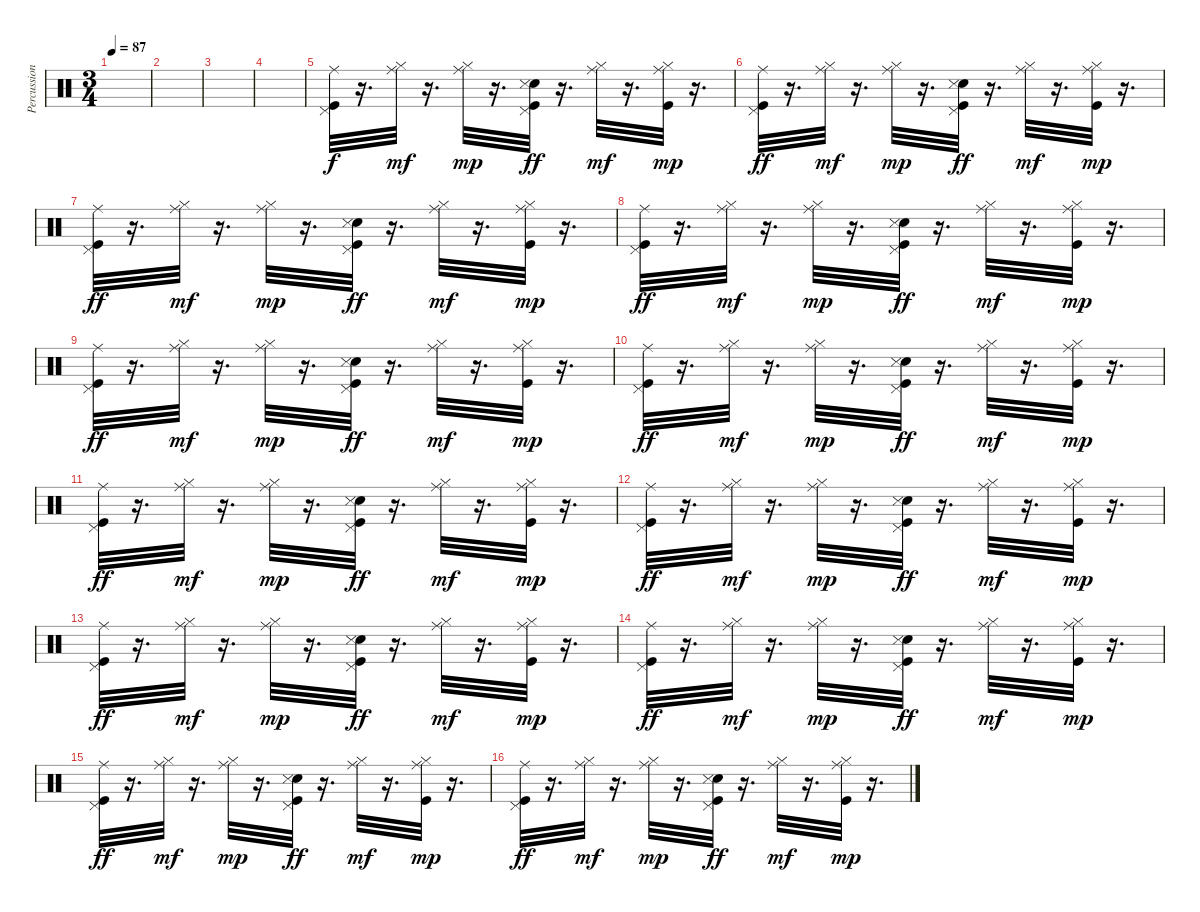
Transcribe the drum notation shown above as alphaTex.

\track ("Percussion" "Percussion") {instrument percussion}
\staff {score}
\articulation defaults
\ts (3 4)
\tempo 87
\clef neutral
\ks c
|
|
|
|
("Kick (hit)" "Ride (middle)" "Pedal Hi-Hat (hit)").32 r.16{d} ("Hi-Hat (closed)" "Ride (middle)").32{dy mf} r.16{d} ("Hi-Hat (closed)" "Ride (middle)").32{dy mp} r.16{d} ("Kick (hit)" "Pedal Hi-Hat (hit)" "Electric Snare (hit)" "Snare (side stick) 3").32{dy ff} r.16{d} ("Hi-Hat (closed)" "Ride (middle)").32{dy mf} r.16{d} ("Hi-Hat (closed)" "Ride (middle)" "Kick (hit)").32{dy mp} r.16{d} |
("Kick (hit)" "Ride (middle)" "Pedal Hi-Hat (hit)").32{dy ff} r.16{d} ("Hi-Hat (closed)" "Ride (middle)").32{dy mf} r.16{d} ("Hi-Hat (closed)" "Ride (middle)").32{dy mp} r.16{d} ("Kick (hit)" "Pedal Hi-Hat (hit)" "Electric Snare (hit)" "Snare (side stick) 3").32{dy ff} r.16{d} ("Hi-Hat (closed)" "Ride (middle)").32{dy mf} r.16{d} ("Hi-Hat (closed)" "Ride (middle)" "Kick (hit)").32{dy mp} r.16{d} |
("Kick (hit)" "Ride (middle)" "Pedal Hi-Hat (hit)").32{dy ff} r.16{d} ("Hi-Hat (closed)" "Ride (middle)").32{dy mf} r.16{d} ("Hi-Hat (closed)" "Ride (middle)").32{dy mp} r.16{d} ("Kick (hit)" "Pedal Hi-Hat (hit)" "Electric Snare (hit)" "Snare (side stick) 3").32{dy ff} r.16{d} ("Hi-Hat (closed)" "Ride (middle)").32{dy mf} r.16{d} ("Hi-Hat (closed)" "Ride (middle)" "Kick (hit)").32{dy mp} r.16{d} |
("Kick (hit)" "Ride (middle)" "Pedal Hi-Hat (hit)").32{dy ff} r.16{d} ("Hi-Hat (closed)" "Ride (middle)").32{dy mf} r.16{d} ("Hi-Hat (closed)" "Ride (middle)").32{dy mp} r.16{d} ("Kick (hit)" "Pedal Hi-Hat (hit)" "Electric Snare (hit)" "Snare (side stick) 3").32{dy ff} r.16{d} ("Hi-Hat (closed)" "Ride (middle)").32{dy mf} r.16{d} ("Hi-Hat (closed)" "Ride (middle)" "Kick (hit)").32{dy mp} r.16{d} |
("Kick (hit)" "Ride (middle)" "Pedal Hi-Hat (hit)").32{dy ff} r.16{d} ("Hi-Hat (closed)" "Ride (middle)").32{dy mf} r.16{d} ("Hi-Hat (closed)" "Ride (middle)").32{dy mp} r.16{d} ("Kick (hit)" "Pedal Hi-Hat (hit)" "Electric Snare (hit)" "Snare (side stick) 3").32{dy ff} r.16{d} ("Hi-Hat (closed)" "Ride (middle)").32{dy mf} r.16{d} ("Hi-Hat (closed)" "Ride (middle)" "Kick (hit)").32{dy mp} r.16{d} |
("Kick (hit)" "Ride (middle)" "Pedal Hi-Hat (hit)").32{dy ff} r.16{d} ("Hi-Hat (closed)" "Ride (middle)").32{dy mf} r.16{d} ("Hi-Hat (closed)" "Ride (middle)").32{dy mp} r.16{d} ("Kick (hit)" "Pedal Hi-Hat (hit)" "Electric Snare (hit)" "Snare (side stick) 3").32{dy ff} r.16{d} ("Hi-Hat (closed)" "Ride (middle)").32{dy mf} r.16{d} ("Hi-Hat (closed)" "Ride (middle)" "Kick (hit)").32{dy mp} r.16{d} |
("Kick (hit)" "Ride (middle)" "Pedal Hi-Hat (hit)").32{dy ff} r.16{d} ("Hi-Hat (closed)" "Ride (middle)").32{dy mf} r.16{d} ("Hi-Hat (closed)" "Ride (middle)").32{dy mp} r.16{d} ("Kick (hit)" "Pedal Hi-Hat (hit)" "Electric Snare (hit)" "Snare (side stick) 3").32{dy ff} r.16{d} ("Hi-Hat (closed)" "Ride (middle)").32{dy mf} r.16{d} ("Hi-Hat (closed)" "Ride (middle)" "Kick (hit)").32{dy mp} r.16{d} |
("Kick (hit)" "Ride (middle)" "Pedal Hi-Hat (hit)").32{dy ff} r.16{d} ("Hi-Hat (closed)" "Ride (middle)").32{dy mf} r.16{d} ("Hi-Hat (closed)" "Ride (middle)").32{dy mp} r.16{d} ("Kick (hit)" "Pedal Hi-Hat (hit)" "Electric Snare (hit)" "Snare (side stick) 3").32{dy ff} r.16{d} ("Hi-Hat (closed)" "Ride (middle)").32{dy mf} r.16{d} ("Hi-Hat (closed)" "Ride (middle)" "Kick (hit)").32{dy mp} r.16{d} |
("Kick (hit)" "Ride (middle)" "Pedal Hi-Hat (hit)").32{dy ff} r.16{d} ("Hi-Hat (closed)" "Ride (middle)").32{dy mf} r.16{d} ("Hi-Hat (closed)" "Ride (middle)").32{dy mp} r.16{d} ("Kick (hit)" "Pedal Hi-Hat (hit)" "Electric Snare (hit)" "Snare (side stick) 3").32{dy ff} r.16{d} ("Hi-Hat (closed)" "Ride (middle)").32{dy mf} r.16{d} ("Hi-Hat (closed)" "Ride (middle)" "Kick (hit)").32{dy mp} r.16{d} |
("Kick (hit)" "Ride (middle)" "Pedal Hi-Hat (hit)").32{dy ff} r.16{d} ("Hi-Hat (closed)" "Ride (middle)").32{dy mf} r.16{d} ("Hi-Hat (closed)" "Ride (middle)").32{dy mp} r.16{d} ("Kick (hit)" "Pedal Hi-Hat (hit)" "Electric Snare (hit)" "Snare (side stick) 3").32{dy ff} r.16{d} ("Hi-Hat (closed)" "Ride (middle)").32{dy mf} r.16{d} ("Hi-Hat (closed)" "Ride (middle)" "Kick (hit)").32{dy mp} r.16{d} |
("Kick (hit)" "Ride (middle)" "Pedal Hi-Hat (hit)").32{dy ff} r.16{d} ("Hi-Hat (closed)" "Ride (middle)").32{dy mf} r.16{d} ("Hi-Hat (closed)" "Ride (middle)").32{dy mp} r.16{d} ("Kick (hit)" "Pedal Hi-Hat (hit)" "Electric Snare (hit)" "Snare (side stick) 3").32{dy ff} r.16{d} ("Hi-Hat (closed)" "Ride (middle)").32{dy mf} r.16{d} ("Hi-Hat (closed)" "Ride (middle)" "Kick (hit)").32{dy mp} r.16{d} |
("Kick (hit)" "Ride (middle)" "Pedal Hi-Hat (hit)").32{dy ff} r.16{d} ("Hi-Hat (closed)" "Ride (middle)").32{dy mf} r.16{d} ("Hi-Hat (closed)" "Ride (middle)").32{dy mp} r.16{d} ("Kick (hit)" "Pedal Hi-Hat (hit)" "Electric Snare (hit)" "Snare (side stick) 3").32{dy ff} r.16{d} ("Hi-Hat (closed)" "Ride (middle)").32{dy mf} r.16{d} ("Hi-Hat (closed)" "Ride (middle)" "Kick (hit)").32{dy mp} r.16{d}
